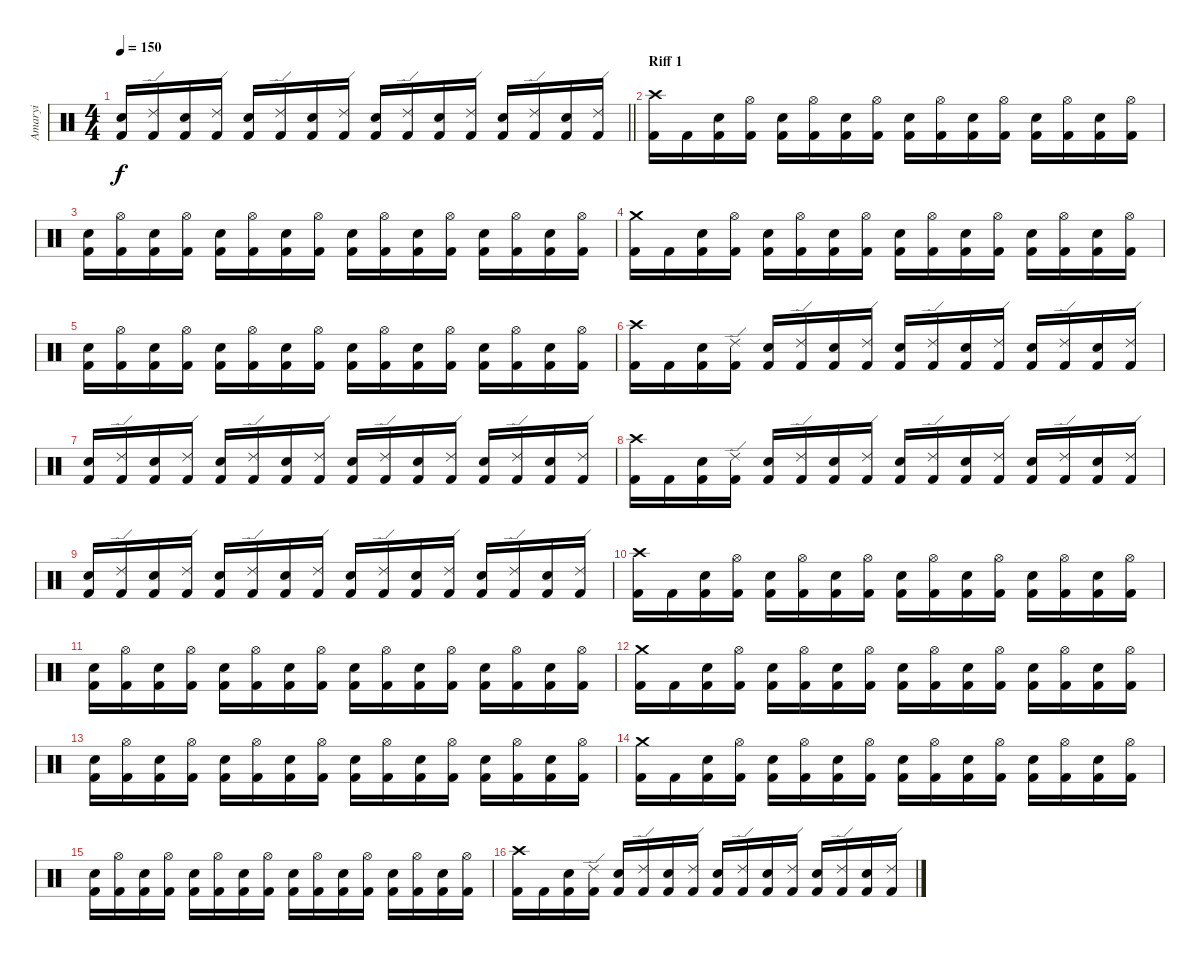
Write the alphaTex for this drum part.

\track ("Amaryi" "Amaryi") {instrument percussion}
\staff {score}
\articulation defaults
\ts (4 4)
\tempo 150
\clef neutral
\barLineRight lightlight
\ks c
("Electric Snare (hit)" "Kick (hit) 2").16{dy f} ("Ride (edge) 2" "Kick (hit) 2").16 ("Electric Snare (hit)" "Kick (hit) 2").16 ("Ride (edge) 2" "Kick (hit) 2").16 ("Electric Snare (hit)" "Kick (hit) 2").16 ("Ride (edge) 2" "Kick (hit) 2").16 ("Electric Snare (hit)" "Kick (hit) 2").16 ("Ride (edge) 2" "Kick (hit) 2").16 ("Electric Snare (hit)" "Kick (hit) 2").16 ("Ride (edge) 2" "Kick (hit) 2").16 ("Electric Snare (hit)" "Kick (hit) 2").16 ("Ride (edge) 2" "Kick (hit) 2").16 ("Electric Snare (hit)" "Kick (hit) 2").16 ("Ride (edge) 2" "Kick (hit) 2").16 ("Electric Snare (hit)" "Kick (hit) 2").16 ("Ride (edge) 2" "Kick (hit) 2").16 |
\section ("" "Riff 1")
("Crash high (hit)" "Kick (hit) 2").16 "Kick (hit) 2".16 ("Electric Snare (hit)" "Kick (hit) 2").16 ("Hi-Hat (open)" "Kick (hit) 2").16 ("Electric Snare (hit)" "Kick (hit) 2").16 ("Hi-Hat (open)" "Kick (hit) 2").16 ("Electric Snare (hit)" "Kick (hit) 2").16 ("Hi-Hat (open)" "Kick (hit) 2").16 ("Electric Snare (hit)" "Kick (hit) 2").16 ("Hi-Hat (open)" "Kick (hit) 2").16 ("Electric Snare (hit)" "Kick (hit) 2").16 ("Hi-Hat (open)" "Kick (hit) 2").16 ("Electric Snare (hit)" "Kick (hit) 2").16 ("Hi-Hat (open)" "Kick (hit) 2").16 ("Electric Snare (hit)" "Kick (hit) 2").16 ("Hi-Hat (open)" "Kick (hit) 2").16 |
("Electric Snare (hit)" "Kick (hit) 2").16 ("Hi-Hat (open)" "Kick (hit) 2").16 ("Electric Snare (hit)" "Kick (hit) 2").16 ("Hi-Hat (open)" "Kick (hit) 2").16 ("Electric Snare (hit)" "Kick (hit) 2").16 ("Hi-Hat (open)" "Kick (hit) 2").16 ("Electric Snare (hit)" "Kick (hit) 2").16 ("Hi-Hat (open)" "Kick (hit) 2").16 ("Electric Snare (hit)" "Kick (hit) 2").16 ("Hi-Hat (open)" "Kick (hit) 2").16 ("Electric Snare (hit)" "Kick (hit) 2").16 ("Hi-Hat (open)" "Kick (hit) 2").16 ("Electric Snare (hit)" "Kick (hit) 2").16 ("Hi-Hat (open)" "Kick (hit) 2").16 ("Electric Snare (hit)" "Kick (hit) 2").16 ("Hi-Hat (open)" "Kick (hit) 2").16 |
("Crash medium (hit)" "Kick (hit) 2").16 "Kick (hit) 2".16 ("Electric Snare (hit)" "Kick (hit) 2").16 ("Hi-Hat (open)" "Kick (hit) 2").16 ("Electric Snare (hit)" "Kick (hit) 2").16 ("Hi-Hat (open)" "Kick (hit) 2").16 ("Electric Snare (hit)" "Kick (hit) 2").16 ("Hi-Hat (open)" "Kick (hit) 2").16 ("Electric Snare (hit)" "Kick (hit) 2").16 ("Hi-Hat (open)" "Kick (hit) 2").16 ("Electric Snare (hit)" "Kick (hit) 2").16 ("Hi-Hat (open)" "Kick (hit) 2").16 ("Electric Snare (hit)" "Kick (hit) 2").16 ("Hi-Hat (open)" "Kick (hit) 2").16 ("Electric Snare (hit)" "Kick (hit) 2").16 ("Hi-Hat (open)" "Kick (hit) 2").16 |
("Electric Snare (hit)" "Kick (hit) 2").16 ("Hi-Hat (open)" "Kick (hit) 2").16 ("Electric Snare (hit)" "Kick (hit) 2").16 ("Hi-Hat (open)" "Kick (hit) 2").16 ("Electric Snare (hit)" "Kick (hit) 2").16 ("Hi-Hat (open)" "Kick (hit) 2").16 ("Electric Snare (hit)" "Kick (hit) 2").16 ("Hi-Hat (open)" "Kick (hit) 2").16 ("Electric Snare (hit)" "Kick (hit) 2").16 ("Hi-Hat (open)" "Kick (hit) 2").16 ("Electric Snare (hit)" "Kick (hit) 2").16 ("Hi-Hat (open)" "Kick (hit) 2").16 ("Electric Snare (hit)" "Kick (hit) 2").16 ("Hi-Hat (open)" "Kick (hit) 2").16 ("Electric Snare (hit)" "Kick (hit) 2").16 ("Hi-Hat (open)" "Kick (hit) 2").16 |
("Crash high (hit)" "Kick (hit) 2").16 "Kick (hit) 2".16 ("Electric Snare (hit)" "Kick (hit) 2").16 ("Ride (edge) 2" "Kick (hit) 2").16 ("Electric Snare (hit)" "Kick (hit) 2").16 ("Ride (edge) 2" "Kick (hit) 2").16 ("Electric Snare (hit)" "Kick (hit) 2").16 ("Ride (edge) 2" "Kick (hit) 2").16 ("Electric Snare (hit)" "Kick (hit) 2").16 ("Ride (edge) 2" "Kick (hit) 2").16 ("Electric Snare (hit)" "Kick (hit) 2").16 ("Ride (edge) 2" "Kick (hit) 2").16 ("Electric Snare (hit)" "Kick (hit) 2").16 ("Ride (edge) 2" "Kick (hit) 2").16 ("Electric Snare (hit)" "Kick (hit) 2").16 ("Ride (edge) 2" "Kick (hit) 2").16 |
("Electric Snare (hit)" "Kick (hit) 2").16 ("Ride (edge) 2" "Kick (hit) 2").16 ("Electric Snare (hit)" "Kick (hit) 2").16 ("Ride (edge) 2" "Kick (hit) 2").16 ("Electric Snare (hit)" "Kick (hit) 2").16 ("Ride (edge) 2" "Kick (hit) 2").16 ("Electric Snare (hit)" "Kick (hit) 2").16 ("Ride (edge) 2" "Kick (hit) 2").16 ("Electric Snare (hit)" "Kick (hit) 2").16 ("Ride (edge) 2" "Kick (hit) 2").16 ("Electric Snare (hit)" "Kick (hit) 2").16 ("Ride (edge) 2" "Kick (hit) 2").16 ("Electric Snare (hit)" "Kick (hit) 2").16 ("Ride (edge) 2" "Kick (hit) 2").16 ("Electric Snare (hit)" "Kick (hit) 2").16 ("Ride (edge) 2" "Kick (hit) 2").16 |
("Crash high (hit)" "Kick (hit) 2").16 "Kick (hit) 2".16 ("Electric Snare (hit)" "Kick (hit) 2").16 ("Ride (edge) 2" "Kick (hit) 2").16 ("Electric Snare (hit)" "Kick (hit) 2").16 ("Ride (edge) 2" "Kick (hit) 2").16 ("Electric Snare (hit)" "Kick (hit) 2").16 ("Ride (edge) 2" "Kick (hit) 2").16 ("Electric Snare (hit)" "Kick (hit) 2").16 ("Ride (edge) 2" "Kick (hit) 2").16 ("Electric Snare (hit)" "Kick (hit) 2").16 ("Ride (edge) 2" "Kick (hit) 2").16 ("Electric Snare (hit)" "Kick (hit) 2").16 ("Ride (edge) 2" "Kick (hit) 2").16 ("Electric Snare (hit)" "Kick (hit) 2").16 ("Ride (edge) 2" "Kick (hit) 2").16 |
("Electric Snare (hit)" "Kick (hit) 2").16 ("Ride (edge) 2" "Kick (hit) 2").16 ("Electric Snare (hit)" "Kick (hit) 2").16 ("Ride (edge) 2" "Kick (hit) 2").16 ("Electric Snare (hit)" "Kick (hit) 2").16 ("Ride (edge) 2" "Kick (hit) 2").16 ("Electric Snare (hit)" "Kick (hit) 2").16 ("Ride (edge) 2" "Kick (hit) 2").16 ("Electric Snare (hit)" "Kick (hit) 2").16 ("Ride (edge) 2" "Kick (hit) 2").16 ("Electric Snare (hit)" "Kick (hit) 2").16 ("Ride (edge) 2" "Kick (hit) 2").16 ("Electric Snare (hit)" "Kick (hit) 2").16 ("Ride (edge) 2" "Kick (hit) 2").16 ("Electric Snare (hit)" "Kick (hit) 2").16 ("Ride (edge) 2" "Kick (hit) 2").16 |
("Crash high (hit)" "Kick (hit) 2").16 "Kick (hit) 2".16 ("Electric Snare (hit)" "Kick (hit) 2").16 ("Hi-Hat (open)" "Kick (hit) 2").16 ("Electric Snare (hit)" "Kick (hit) 2").16 ("Hi-Hat (open)" "Kick (hit) 2").16 ("Electric Snare (hit)" "Kick (hit) 2").16 ("Hi-Hat (open)" "Kick (hit) 2").16 ("Electric Snare (hit)" "Kick (hit) 2").16 ("Hi-Hat (open)" "Kick (hit) 2").16 ("Electric Snare (hit)" "Kick (hit) 2").16 ("Hi-Hat (open)" "Kick (hit) 2").16 ("Electric Snare (hit)" "Kick (hit) 2").16 ("Hi-Hat (open)" "Kick (hit) 2").16 ("Electric Snare (hit)" "Kick (hit) 2").16 ("Hi-Hat (open)" "Kick (hit) 2").16 |
("Electric Snare (hit)" "Kick (hit) 2").16 ("Hi-Hat (open)" "Kick (hit) 2").16 ("Electric Snare (hit)" "Kick (hit) 2").16 ("Hi-Hat (open)" "Kick (hit) 2").16 ("Electric Snare (hit)" "Kick (hit) 2").16 ("Hi-Hat (open)" "Kick (hit) 2").16 ("Electric Snare (hit)" "Kick (hit) 2").16 ("Hi-Hat (open)" "Kick (hit) 2").16 ("Electric Snare (hit)" "Kick (hit) 2").16 ("Hi-Hat (open)" "Kick (hit) 2").16 ("Electric Snare (hit)" "Kick (hit) 2").16 ("Hi-Hat (open)" "Kick (hit) 2").16 ("Electric Snare (hit)" "Kick (hit) 2").16 ("Hi-Hat (open)" "Kick (hit) 2").16 ("Electric Snare (hit)" "Kick (hit) 2").16 ("Hi-Hat (open)" "Kick (hit) 2").16 |
("Crash medium (hit)" "Kick (hit) 2").16 "Kick (hit) 2".16 ("Electric Snare (hit)" "Kick (hit) 2").16 ("Hi-Hat (open)" "Kick (hit) 2").16 ("Electric Snare (hit)" "Kick (hit) 2").16 ("Hi-Hat (open)" "Kick (hit) 2").16 ("Electric Snare (hit)" "Kick (hit) 2").16 ("Hi-Hat (open)" "Kick (hit) 2").16 ("Electric Snare (hit)" "Kick (hit) 2").16 ("Hi-Hat (open)" "Kick (hit) 2").16 ("Electric Snare (hit)" "Kick (hit) 2").16 ("Hi-Hat (open)" "Kick (hit) 2").16 ("Electric Snare (hit)" "Kick (hit) 2").16 ("Hi-Hat (open)" "Kick (hit) 2").16 ("Electric Snare (hit)" "Kick (hit) 2").16 ("Hi-Hat (open)" "Kick (hit) 2").16 |
("Electric Snare (hit)" "Kick (hit) 2").16 ("Hi-Hat (open)" "Kick (hit) 2").16 ("Electric Snare (hit)" "Kick (hit) 2").16 ("Hi-Hat (open)" "Kick (hit) 2").16 ("Electric Snare (hit)" "Kick (hit) 2").16 ("Hi-Hat (open)" "Kick (hit) 2").16 ("Electric Snare (hit)" "Kick (hit) 2").16 ("Hi-Hat (open)" "Kick (hit) 2").16 ("Electric Snare (hit)" "Kick (hit) 2").16 ("Hi-Hat (open)" "Kick (hit) 2").16 ("Electric Snare (hit)" "Kick (hit) 2").16 ("Hi-Hat (open)" "Kick (hit) 2").16 ("Electric Snare (hit)" "Kick (hit) 2").16 ("Hi-Hat (open)" "Kick (hit) 2").16 ("Electric Snare (hit)" "Kick (hit) 2").16 ("Hi-Hat (open)" "Kick (hit) 2").16 |
("Crash medium (hit)" "Kick (hit) 2").16 "Kick (hit) 2".16 ("Electric Snare (hit)" "Kick (hit) 2").16 ("Hi-Hat (open)" "Kick (hit) 2").16 ("Electric Snare (hit)" "Kick (hit) 2").16 ("Hi-Hat (open)" "Kick (hit) 2").16 ("Electric Snare (hit)" "Kick (hit) 2").16 ("Hi-Hat (open)" "Kick (hit) 2").16 ("Electric Snare (hit)" "Kick (hit) 2").16 ("Hi-Hat (open)" "Kick (hit) 2").16 ("Electric Snare (hit)" "Kick (hit) 2").16 ("Hi-Hat (open)" "Kick (hit) 2").16 ("Electric Snare (hit)" "Kick (hit) 2").16 ("Hi-Hat (open)" "Kick (hit) 2").16 ("Electric Snare (hit)" "Kick (hit) 2").16 ("Hi-Hat (open)" "Kick (hit) 2").16 |
("Electric Snare (hit)" "Kick (hit) 2").16 ("Hi-Hat (open)" "Kick (hit) 2").16 ("Electric Snare (hit)" "Kick (hit) 2").16 ("Hi-Hat (open)" "Kick (hit) 2").16 ("Electric Snare (hit)" "Kick (hit) 2").16 ("Hi-Hat (open)" "Kick (hit) 2").16 ("Electric Snare (hit)" "Kick (hit) 2").16 ("Hi-Hat (open)" "Kick (hit) 2").16 ("Electric Snare (hit)" "Kick (hit) 2").16 ("Hi-Hat (open)" "Kick (hit) 2").16 ("Electric Snare (hit)" "Kick (hit) 2").16 ("Hi-Hat (open)" "Kick (hit) 2").16 ("Electric Snare (hit)" "Kick (hit) 2").16 ("Hi-Hat (open)" "Kick (hit) 2").16 ("Electric Snare (hit)" "Kick (hit) 2").16 ("Hi-Hat (open)" "Kick (hit) 2").16 |
("Crash high (hit)" "Kick (hit) 2").16 "Kick (hit) 2".16 ("Electric Snare (hit)" "Kick (hit) 2").16 ("Ride (edge) 2" "Kick (hit) 2").16 ("Electric Snare (hit)" "Kick (hit) 2").16 ("Ride (edge) 2" "Kick (hit) 2").16 ("Electric Snare (hit)" "Kick (hit) 2").16 ("Ride (edge) 2" "Kick (hit) 2").16 ("Electric Snare (hit)" "Kick (hit) 2").16 ("Ride (edge) 2" "Kick (hit) 2").16 ("Electric Snare (hit)" "Kick (hit) 2").16 ("Ride (edge) 2" "Kick (hit) 2").16 ("Electric Snare (hit)" "Kick (hit) 2").16 ("Ride (edge) 2" "Kick (hit) 2").16 ("Electric Snare (hit)" "Kick (hit) 2").16 ("Ride (edge) 2" "Kick (hit) 2").16
